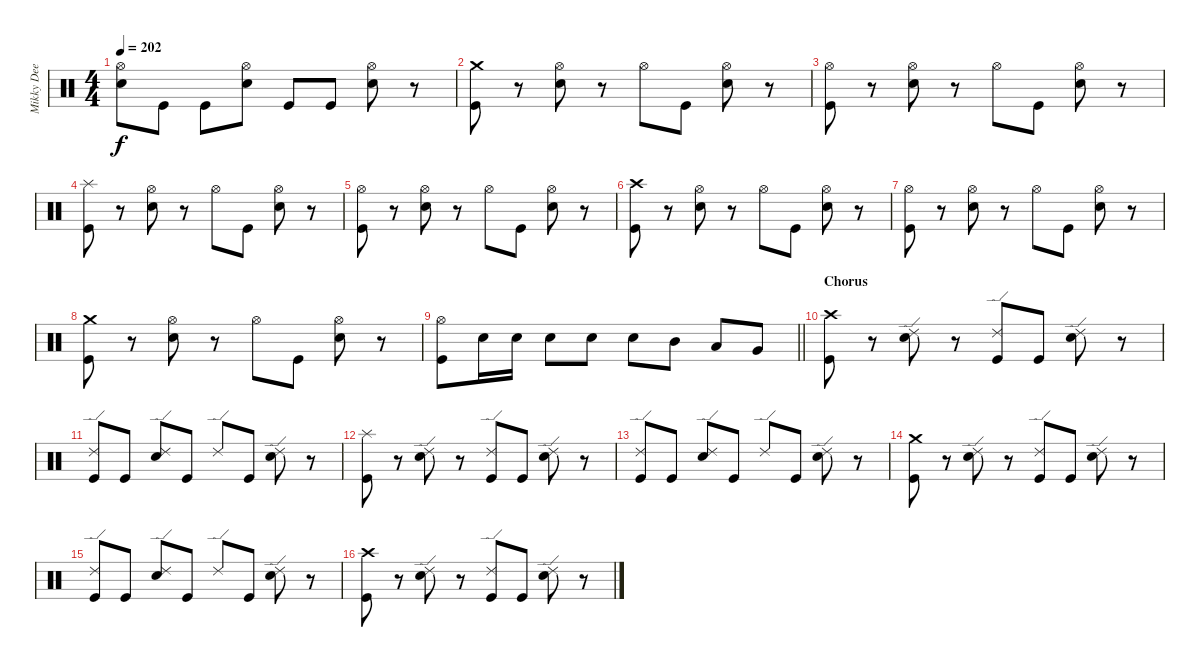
\track ("Mikky Dee" "Mikky Dee") {instrument percussion}
\staff {score}
\articulation defaults
\ts (4 4)
\tempo 202
\clef neutral
\ks c
("Hi-Hat (open)" "Electric Snare (hit)").8{dy f} "Kick (hit)".8 "Kick (hit)".8 ("Hi-Hat (open)" "Electric Snare (hit)").8 "Kick (hit)".8 "Kick (hit)".8 ("Hi-Hat (open)" "Electric Snare (hit)").8 r.8 |
("Crash medium (hit)" "Kick (hit)").8 r.8 ("Hi-Hat (open)" "Electric Snare (hit)").8 r.8 "Hi-Hat (open)".8 "Kick (hit)".8 ("Hi-Hat (open)" "Electric Snare (hit)").8 r.8 |
("Hi-Hat (open)" "Kick (hit)").8 r.8 ("Hi-Hat (open)" "Electric Snare (hit)").8 r.8 "Hi-Hat (open)".8 "Kick (hit)".8 ("Hi-Hat (open)" "Electric Snare (hit)").8 r.8 |
("Splash (hit)" "Kick (hit)").8 r.8 ("Hi-Hat (open)" "Electric Snare (hit)").8 r.8 "Hi-Hat (open)".8 "Kick (hit)".8 ("Hi-Hat (open)" "Electric Snare (hit)").8 r.8 |
("Hi-Hat (open)" "Kick (hit)").8 r.8 ("Hi-Hat (open)" "Electric Snare (hit)").8 r.8 "Hi-Hat (open)".8 "Kick (hit)".8 ("Hi-Hat (open)" "Electric Snare (hit)").8 r.8 |
("Crash high (hit)" "Kick (hit)").8 r.8 ("Hi-Hat (open)" "Electric Snare (hit)").8 r.8 "Hi-Hat (open)".8 "Kick (hit)".8 ("Hi-Hat (open)" "Electric Snare (hit)").8 r.8 |
("Hi-Hat (open)" "Kick (hit)").8 r.8 ("Hi-Hat (open)" "Electric Snare (hit)").8 r.8 "Hi-Hat (open)".8 "Kick (hit)".8 ("Hi-Hat (open)" "Electric Snare (hit)").8 r.8 |
("Crash medium (hit)" "Kick (hit)").8 r.8 ("Hi-Hat (open)" "Electric Snare (hit)").8 r.8 "Hi-Hat (open)".8 "Kick (hit)".8 ("Hi-Hat (open)" "Electric Snare (hit)").8 r.8 |
\barLineRight lightlight
("Hi-Hat (open)" "Kick (hit)").8 "Electric Snare (hit)".16 "Electric Snare (hit)".16 "Electric Snare (hit)".8 "Electric Snare (hit)".8 "Electric Snare (hit)".8 "Mid Tom (hit)".8 "Low Tom (hit)".8 "Very Low Tom (hit)".8 |
\section ("" "Chorus")
("Crash high (hit)" "Kick (hit)").8 r.8 ("Ride (edge) 2" "Electric Snare (hit)").8 r.8 ("Ride (edge) 2" "Kick (hit)").8 "Kick (hit)".8 ("Ride (edge) 2" "Electric Snare (hit)").8 r.8 |
("Ride (edge) 2" "Kick (hit)").8 "Kick (hit)".8 ("Ride (edge) 2" "Electric Snare (hit)").8 "Kick (hit)".8 "Ride (edge) 2".8 "Kick (hit)".8 ("Ride (edge) 2" "Electric Snare (hit)").8 r.8 |
("Splash (hit)" "Kick (hit)").8 r.8 ("Ride (edge) 2" "Electric Snare (hit)").8 r.8 ("Ride (edge) 2" "Kick (hit)").8 "Kick (hit)".8 ("Ride (edge) 2" "Electric Snare (hit)").8 r.8 |
("Ride (edge) 2" "Kick (hit)").8 "Kick (hit)".8 ("Ride (edge) 2" "Electric Snare (hit)").8 "Kick (hit)".8 "Ride (edge) 2".8 "Kick (hit)".8 ("Ride (edge) 2" "Electric Snare (hit)").8 r.8 |
("Crash medium (hit)" "Kick (hit)").8 r.8 ("Ride (edge) 2" "Electric Snare (hit)").8 r.8 ("Ride (edge) 2" "Kick (hit)").8 "Kick (hit)".8 ("Ride (edge) 2" "Electric Snare (hit)").8 r.8 |
("Ride (edge) 2" "Kick (hit)").8 "Kick (hit)".8 ("Ride (edge) 2" "Electric Snare (hit)").8 "Kick (hit)".8 "Ride (edge) 2".8 "Kick (hit)".8 ("Ride (edge) 2" "Electric Snare (hit)").8 r.8 |
("Crash high (hit)" "Kick (hit)").8 r.8 ("Ride (edge) 2" "Electric Snare (hit)").8 r.8 ("Ride (edge) 2" "Kick (hit)").8 "Kick (hit)".8 ("Ride (edge) 2" "Electric Snare (hit)").8 r.8
